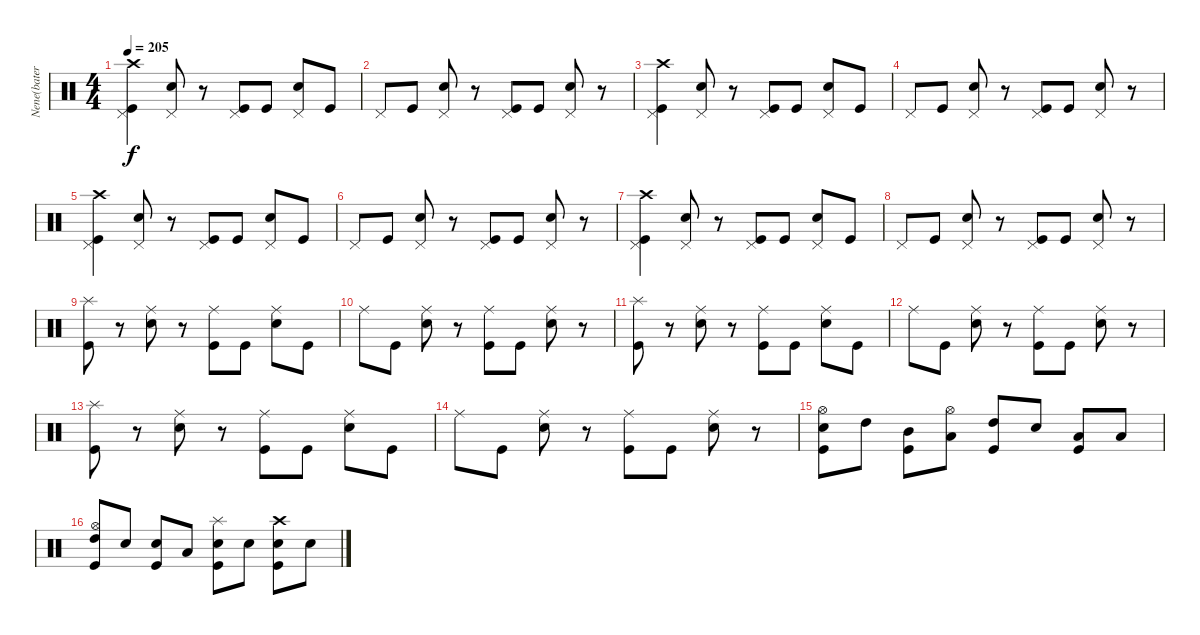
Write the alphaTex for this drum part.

\track ("Nene(batera)" "Nene(bater") {instrument percussion}
\staff {score}
\articulation defaults
\ts (4 4)
\tempo 205
\clef neutral
\ks c
("Crash high (hit)" "Kick (hit)" "Pedal Hi-Hat (hit)").4{dy f} ("Electric Snare (hit)" "Pedal Hi-Hat (hit)").8 r.8 ("Kick (hit)" "Pedal Hi-Hat (hit)").8 "Kick (hit)".8 ("Electric Snare (hit)" "Pedal Hi-Hat (hit)").8 "Kick (hit)".8 |
"Pedal Hi-Hat (hit)".8 "Kick (hit)".8 ("Electric Snare (hit)" "Pedal Hi-Hat (hit)").8 r.8 ("Kick (hit)" "Pedal Hi-Hat (hit)").8 "Kick (hit)".8 ("Electric Snare (hit)" "Pedal Hi-Hat (hit)").8 r.8 |
("Crash high (hit)" "Kick (hit)" "Pedal Hi-Hat (hit)").4 ("Electric Snare (hit)" "Pedal Hi-Hat (hit)").8 r.8 ("Kick (hit)" "Pedal Hi-Hat (hit)").8 "Kick (hit)".8 ("Electric Snare (hit)" "Pedal Hi-Hat (hit)").8 "Kick (hit)".8 |
"Pedal Hi-Hat (hit)".8 "Kick (hit)".8 ("Electric Snare (hit)" "Pedal Hi-Hat (hit)").8 r.8 ("Kick (hit)" "Pedal Hi-Hat (hit)").8 "Kick (hit)".8 ("Electric Snare (hit)" "Pedal Hi-Hat (hit)").8 r.8 |
("Crash high (hit)" "Kick (hit)" "Pedal Hi-Hat (hit)").4 ("Electric Snare (hit)" "Pedal Hi-Hat (hit)").8 r.8 ("Kick (hit)" "Pedal Hi-Hat (hit)").8 "Kick (hit)".8 ("Electric Snare (hit)" "Pedal Hi-Hat (hit)").8 "Kick (hit)".8 |
"Pedal Hi-Hat (hit)".8 "Kick (hit)".8 ("Electric Snare (hit)" "Pedal Hi-Hat (hit)").8 r.8 ("Kick (hit)" "Pedal Hi-Hat (hit)").8 "Kick (hit)".8 ("Electric Snare (hit)" "Pedal Hi-Hat (hit)").8 r.8 |
("Crash high (hit)" "Kick (hit)" "Pedal Hi-Hat (hit)").4 ("Electric Snare (hit)" "Pedal Hi-Hat (hit)").8 r.8 ("Kick (hit)" "Pedal Hi-Hat (hit)").8 "Kick (hit)".8 ("Electric Snare (hit)" "Pedal Hi-Hat (hit)").8 "Kick (hit)".8 |
"Pedal Hi-Hat (hit)".8 "Kick (hit)".8 ("Electric Snare (hit)" "Pedal Hi-Hat (hit)").8 r.8 ("Kick (hit)" "Pedal Hi-Hat (hit)").8 "Kick (hit)".8 ("Electric Snare (hit)" "Pedal Hi-Hat (hit)").8 r.8 |
("Splash (hit)" "Kick (hit)").8 r.8 ("Electric Snare (hit)" "Ride (middle)").8 r.8 ("Kick (hit)" "Ride (middle)").8 "Kick (hit)".8 ("Electric Snare (hit)" "Ride (middle)").8 "Kick (hit)".8 |
"Ride (middle)".8 "Kick (hit)".8 ("Electric Snare (hit)" "Ride (middle)").8 r.8 ("Kick (hit)" "Ride (middle)").8 "Kick (hit)".8 ("Electric Snare (hit)" "Ride (middle)").8 r.8 |
("Splash (hit)" "Kick (hit)").8 r.8 ("Electric Snare (hit)" "Ride (middle)").8 r.8 ("Kick (hit)" "Ride (middle)").8 "Kick (hit)".8 ("Electric Snare (hit)" "Ride (middle)").8 "Kick (hit)".8 |
"Ride (middle)".8 "Kick (hit)".8 ("Electric Snare (hit)" "Ride (middle)").8 r.8 ("Kick (hit)" "Ride (middle)").8 "Kick (hit)".8 ("Electric Snare (hit)" "Ride (middle)").8 r.8 |
("Splash (hit)" "Kick (hit)").8 r.8 ("Electric Snare (hit)" "Ride (middle)").8 r.8 ("Kick (hit)" "Ride (middle)").8 "Kick (hit)".8 ("Electric Snare (hit)" "Ride (middle)").8 "Kick (hit)".8 |
"Ride (middle)".8 "Kick (hit)".8 ("Electric Snare (hit)" "Ride (middle)").8 r.8 ("Kick (hit)" "Ride (middle)").8 "Kick (hit)".8 ("Electric Snare (hit)" "Ride (middle)").8 r.8 |
("Hi-Hat (open)" "Electric Snare (hit)" "Kick (hit)").8 "High Tom (hit)".8 ("Mid Tom (hit)" "Kick (hit)").8 ("Hi-Hat (open)" "Low Tom (hit)").8 ("High Tom (hit)" "Kick (hit)").8 "Electric Snare (hit)".8 ("Low Tom (hit)" "Kick (hit)").8 "Low Tom (hit)".8 |
("Hi-Hat (open)" "High Tom (hit)" "Kick (hit)").8 "Electric Snare (hit)".8 ("Electric Snare (hit)" "Kick (hit)").8 "Low Tom (hit)".8 ("Splash (hit)" "Electric Snare (hit)" "Kick (hit)").8 "Electric Snare (hit)".8 ("Crash high (hit)" "Electric Snare (hit)" "Kick (hit)").8 "Electric Snare (hit)".8
